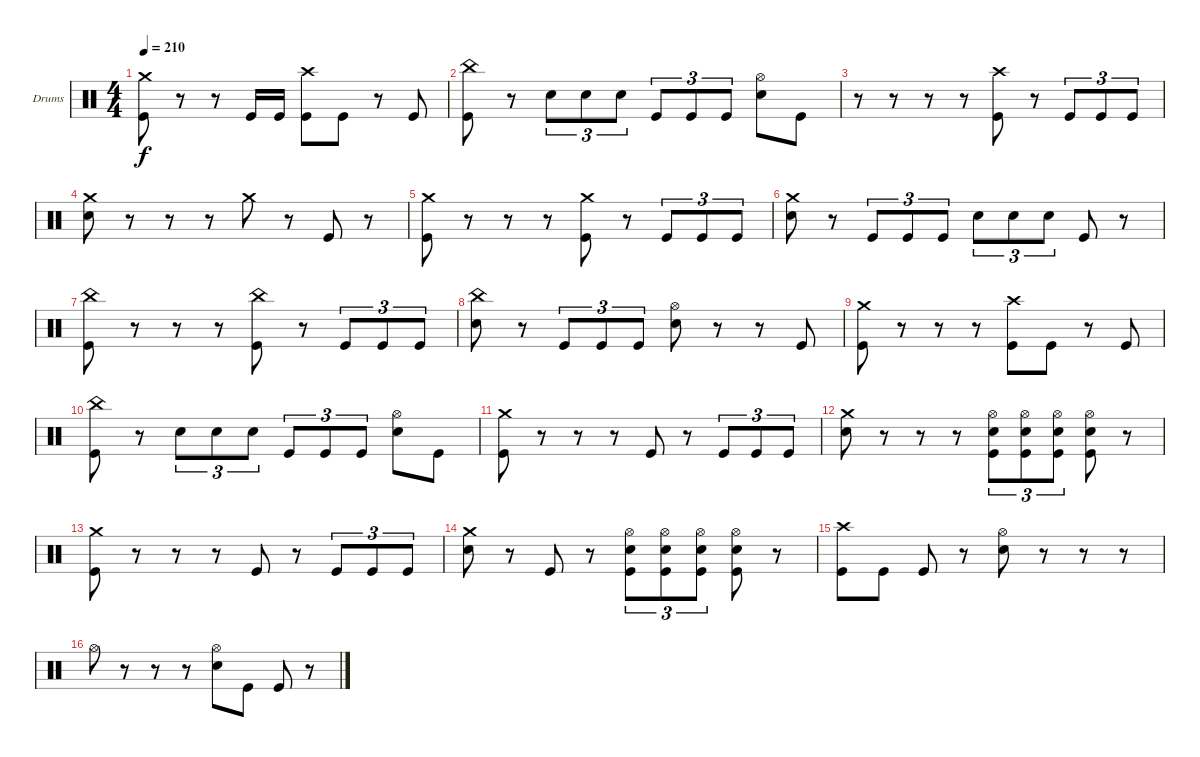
\bracketExtendMode groupsimilarinstruments
\firstSystemTrackNameOrientation horizontal
\otherSystemsTrackNameOrientation horizontal
\track ("Drumkit" "Drums") {instrument percussion}
\staff {score}
\articulation defaults
\ts (4 4)
\tempo 210
\clef neutral
\ks c
("Crash medium (hit)" "Kick (hit)").8{dy f} r.8 r.8 "Kick (hit)".16 "Kick (hit)".16 ("Crash high (hit)" "Kick (hit)").8 "Kick (hit)".8 r.8 "Kick (hit)".8 |
("China (hit)" "Kick (hit)").8 r.8 "Snare (hit) 2".8{tu (3 2)} "Snare (hit) 2".8{tu (3 2)} "Snare (hit) 2".8{tu (3 2)} "Kick (hit)".8{tu (3 2)} "Kick (hit)".8{tu (3 2)} "Kick (hit)".8{tu (3 2)} ("Hi-Hat (open)" "Snare (hit) 2").8 "Kick (hit)".8 |
r.8 r.8 r.8 r.8 ("Crash high (hit)" "Kick (hit)").8 r.8 "Kick (hit)".8{tu (3 2)} "Kick (hit)".8{tu (3 2)} "Kick (hit)".8{tu (3 2)} |
("Crash medium (hit)" "Snare (hit) 2").8 r.8 r.8 r.8 "Crash medium (hit)".8 r.8 "Kick (hit)".8 r.8 |
("Crash medium (hit)" "Kick (hit)").8 r.8 r.8 r.8 ("Crash medium (hit)" "Kick (hit)").8 r.8 "Kick (hit)".8{tu (3 2)} "Kick (hit)".8{tu (3 2)} "Kick (hit)".8{tu (3 2)} |
("Crash medium (hit)" "Snare (hit) 2").8 r.8 "Kick (hit)".8{tu (3 2)} "Kick (hit)".8{tu (3 2)} "Kick (hit)".8{tu (3 2)} "Snare (hit) 2".8{tu (3 2)} "Snare (hit) 2".8{tu (3 2)} "Snare (hit) 2".8{tu (3 2)} "Kick (hit)".8 r.8 |
("China (hit)" "Kick (hit)").8 r.8 r.8 r.8 ("China (hit)" "Kick (hit)").8 r.8 "Kick (hit)".8{tu (3 2)} "Kick (hit)".8{tu (3 2)} "Kick (hit)".8{tu (3 2)} |
("China (hit)" "Snare (hit) 2").8 r.8 "Kick (hit)".8{tu (3 2)} "Kick (hit)".8{tu (3 2)} "Kick (hit)".8{tu (3 2)} ("Hi-Hat (open)" "Snare (hit) 2").8 r.8 r.8 "Kick (hit)".8 |
("Crash medium (hit)" "Kick (hit)").8 r.8 r.8 r.8 ("Crash high (hit)" "Kick (hit)").8 "Kick (hit)".8 r.8 "Kick (hit)".8 |
("China (hit)" "Kick (hit)").8 r.8 "Snare (hit) 2".8{tu (3 2)} "Snare (hit) 2".8{tu (3 2)} "Snare (hit) 2".8{tu (3 2)} "Kick (hit)".8{tu (3 2)} "Kick (hit)".8{tu (3 2)} "Kick (hit)".8{tu (3 2)} ("Hi-Hat (open)" "Snare (hit) 2").8 "Kick (hit)".8 |
("Crash medium (hit)" "Kick (hit)").8 r.8 r.8 r.8 "Kick (hit)".8 r.8 "Kick (hit)".8{tu (3 2)} "Kick (hit)".8{tu (3 2)} "Kick (hit)".8{tu (3 2)} |
("Crash medium (hit)" "Snare (hit) 2").8 r.8 r.8 r.8 ("Hi-Hat (open)" "Snare (hit) 2" "Kick (hit)").8{tu (3 2)} ("Hi-Hat (open)" "Snare (hit) 2" "Kick (hit)").8{tu (3 2)} ("Hi-Hat (open)" "Snare (hit) 2" "Kick (hit)").8{tu (3 2)} ("Hi-Hat (open)" "Snare (hit) 2" "Kick (hit)").8 r.8 |
("Crash medium (hit)" "Kick (hit)").8 r.8 r.8 r.8 "Kick (hit)".8 r.8 "Kick (hit)".8{tu (3 2)} "Kick (hit)".8{tu (3 2)} "Kick (hit)".8{tu (3 2)} |
("Crash medium (hit)" "Snare (hit) 2").8 r.8 "Kick (hit)".8 r.8 ("Hi-Hat (open)" "Snare (hit) 2" "Kick (hit)").8{tu (3 2)} ("Hi-Hat (open)" "Snare (hit) 2" "Kick (hit)").8{tu (3 2)} ("Hi-Hat (open)" "Snare (hit) 2" "Kick (hit)").8{tu (3 2)} ("Hi-Hat (open)" "Snare (hit) 2" "Kick (hit)").8 r.8 |
("Crash high (hit)" "Kick (hit)").8 "Kick (hit)".8 "Kick (hit)".8 r.8 ("Hi-Hat (open)" "Snare (hit) 2").8 r.8 r.8 r.8 |
"Hi-Hat (open)".8 r.8 r.8 r.8 ("Hi-Hat (open)" "Snare (hit) 2").8 "Kick (hit)".8 "Kick (hit)".8 r.8
